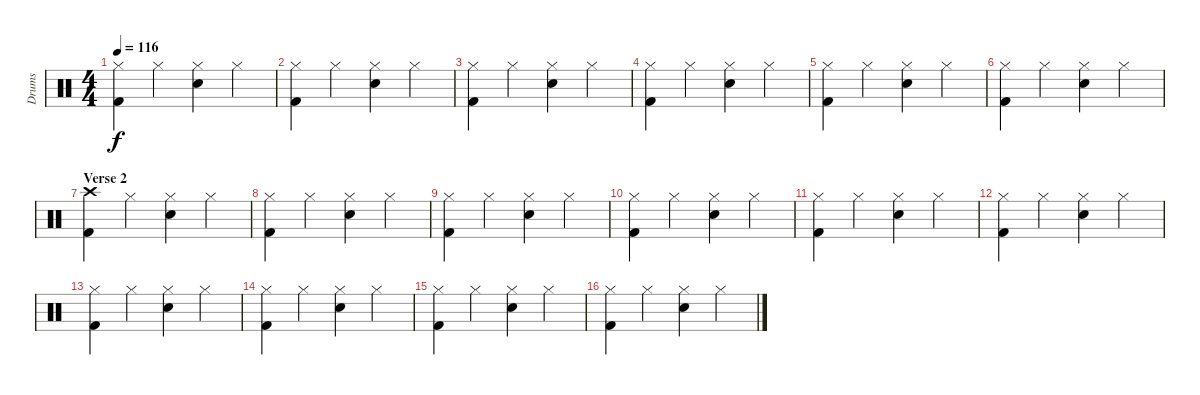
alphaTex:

\track ("Drums" "Drums") {instrument percussion}
\staff {score}
\articulation defaults
\ts (4 4)
\tempo 116
\clef neutral
\ks c
("Hi-Hat (closed)" "Kick (hit) 2").4{dy f} "Hi-Hat (closed)".4 ("Hi-Hat (closed)" "Snare (hit) 2").4 "Hi-Hat (closed)".4 |
("Hi-Hat (closed)" "Kick (hit) 2").4 "Hi-Hat (closed)".4 ("Hi-Hat (closed)" "Snare (hit) 2").4 "Hi-Hat (closed)".4 |
("Hi-Hat (closed)" "Kick (hit) 2").4 "Hi-Hat (closed)".4 ("Hi-Hat (closed)" "Snare (hit) 2").4 "Hi-Hat (closed)".4 |
("Hi-Hat (closed)" "Kick (hit) 2").4 "Hi-Hat (closed)".4 ("Hi-Hat (closed)" "Snare (hit) 2").4 "Hi-Hat (closed)".4 |
("Hi-Hat (closed)" "Kick (hit) 2").4 "Hi-Hat (closed)".4 ("Hi-Hat (closed)" "Snare (hit) 2").4 "Hi-Hat (closed)".4 |
("Hi-Hat (closed)" "Kick (hit) 2").4 "Hi-Hat (closed)".4 ("Hi-Hat (closed)" "Snare (hit) 2").4 "Hi-Hat (closed)".4 |
\section ("" "Verse 2")
("Crash high (hit)" "Kick (hit) 2").4 "Hi-Hat (closed)".4 ("Hi-Hat (closed)" "Snare (hit) 2").4 "Hi-Hat (closed)".4 |
("Hi-Hat (closed)" "Kick (hit) 2").4 "Hi-Hat (closed)".4 ("Hi-Hat (closed)" "Snare (hit) 2").4 "Hi-Hat (closed)".4 |
("Hi-Hat (closed)" "Kick (hit) 2").4 "Hi-Hat (closed)".4 ("Hi-Hat (closed)" "Snare (hit) 2").4 "Hi-Hat (closed)".4 |
("Hi-Hat (closed)" "Kick (hit) 2").4 "Hi-Hat (closed)".4 ("Hi-Hat (closed)" "Snare (hit) 2").4 "Hi-Hat (closed)".4 |
("Hi-Hat (closed)" "Kick (hit) 2").4 "Hi-Hat (closed)".4 ("Hi-Hat (closed)" "Snare (hit) 2").4 "Hi-Hat (closed)".4 |
("Hi-Hat (closed)" "Kick (hit) 2").4 "Hi-Hat (closed)".4 ("Hi-Hat (closed)" "Snare (hit) 2").4 "Hi-Hat (closed)".4 |
("Hi-Hat (closed)" "Kick (hit) 2").4 "Hi-Hat (closed)".4 ("Hi-Hat (closed)" "Snare (hit) 2").4 "Hi-Hat (closed)".4 |
("Hi-Hat (closed)" "Kick (hit) 2").4 "Hi-Hat (closed)".4 ("Hi-Hat (closed)" "Snare (hit) 2").4 "Hi-Hat (closed)".4 |
("Hi-Hat (closed)" "Kick (hit) 2").4 "Hi-Hat (closed)".4 ("Hi-Hat (closed)" "Snare (hit) 2").4 "Hi-Hat (closed)".4 |
("Hi-Hat (closed)" "Kick (hit) 2").4 "Hi-Hat (closed)".4 ("Hi-Hat (closed)" "Snare (hit) 2").4 "Hi-Hat (closed)".4
